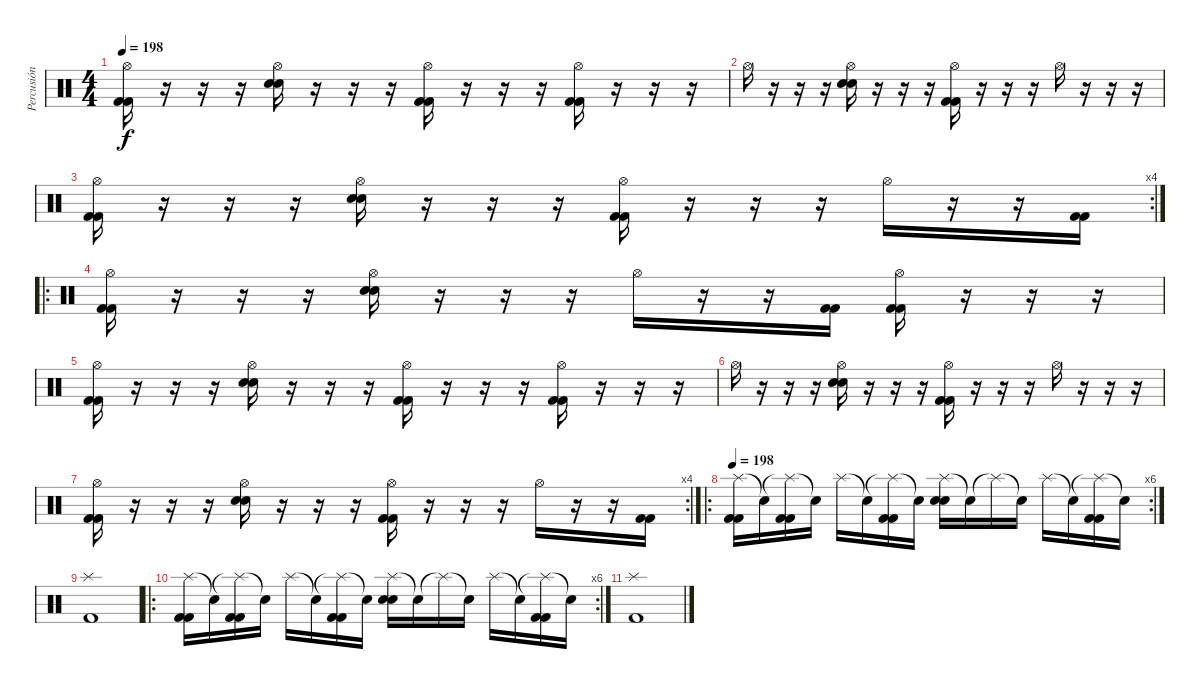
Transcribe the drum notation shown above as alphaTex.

\track ("Percusión" "Percusión") {instrument percussion}
\staff {score}
\articulation defaults
\ts (4 4)
\tempo 198
\clef neutral
\ks c
("Hi-Hat (open)" "Kick (hit) 2" "Kick (hit) 2").16{dy f} r.16 r.16 r.16 ("Hi-Hat (open)" "Electric Snare (hit)" "Electric Snare (hit)").16 r.16 r.16 r.16 ("Hi-Hat (open)" "Kick (hit) 2" "Kick (hit) 2").16 r.16 r.16 r.16 ("Hi-Hat (open)" "Kick (hit) 2" "Kick (hit) 2").16 r.16 r.16 r.16 |
"Hi-Hat (open)".16 r.16 r.16 r.16 ("Hi-Hat (open)" "Electric Snare (hit)" "Electric Snare (hit)").16 r.16 r.16 r.16 ("Hi-Hat (open)" "Kick (hit) 2" "Kick (hit) 2").16 r.16 r.16 r.16 "Hi-Hat (open)".16 r.16 r.16 r.16 |
\rc 4
("Hi-Hat (open)" "Kick (hit) 2" "Kick (hit) 2").16 r.16 r.16 r.16 ("Hi-Hat (open)" "Electric Snare (hit)" "Electric Snare (hit)").16 r.16 r.16 r.16 ("Hi-Hat (open)" "Kick (hit) 2" "Kick (hit) 2").16 r.16 r.16 r.16 "Hi-Hat (open)".16 r.16 r.16 ("Kick (hit) 2" "Kick (hit) 2").16 |
\ro
("Hi-Hat (open)" "Kick (hit) 2" "Kick (hit) 2").16 r.16 r.16 r.16 ("Hi-Hat (open)" "Electric Snare (hit)" "Electric Snare (hit)").16 r.16 r.16 r.16 "Hi-Hat (open)".16 r.16 r.16 ("Kick (hit) 2" "Kick (hit) 2").16 ("Hi-Hat (open)" "Kick (hit) 2" "Kick (hit) 2").16 r.16 r.16 r.16 |
("Hi-Hat (open)" "Kick (hit) 2" "Kick (hit) 2").16 r.16 r.16 r.16 ("Hi-Hat (open)" "Electric Snare (hit)" "Electric Snare (hit)").16 r.16 r.16 r.16 ("Hi-Hat (open)" "Kick (hit) 2" "Kick (hit) 2").16 r.16 r.16 r.16 ("Hi-Hat (open)" "Kick (hit) 2" "Kick (hit) 2").16 r.16 r.16 r.16 |
"Hi-Hat (open)".16 r.16 r.16 r.16 ("Hi-Hat (open)" "Electric Snare (hit)" "Electric Snare (hit)").16 r.16 r.16 r.16 ("Hi-Hat (open)" "Kick (hit) 2" "Kick (hit) 2").16 r.16 r.16 r.16 "Hi-Hat (open)".16 r.16 r.16 r.16 |
\rc 4
("Hi-Hat (open)" "Kick (hit) 2" "Kick (hit) 2").16 r.16 r.16 r.16 ("Hi-Hat (open)" "Electric Snare (hit)" "Electric Snare (hit)").16 r.16 r.16 r.16 ("Hi-Hat (open)" "Kick (hit) 2" "Kick (hit) 2").16 r.16 r.16 r.16 "Hi-Hat (open)".16 r.16 r.16 ("Kick (hit) 2" "Kick (hit) 2").16 |
\ro
\rc 6
\tempo 198
("Splash (hit)" "Kick (hit) 2" "Kick (hit) 2").16 "Snare (hit)"{t}.16 ("Splash (hit)"{t} "Kick (hit) 2" "Kick (hit) 2").16 "Snare (hit)"{t}.16 "Splash (hit)".16 "Snare (hit)"{t}.16 ("Splash (hit)"{t} "Kick (hit) 2" "Kick (hit) 2").16 "Snare (hit)"{t}.16 ("Splash (hit)" "Electric Snare (hit)" "Electric Snare (hit)").16 "Snare (hit)"{t}.16 "Splash (hit)"{t}.16 "Snare (hit)"{t}.16 "Splash (hit)".16 "Snare (hit)"{t}.16 ("Splash (hit)"{t} "Kick (hit) 2" "Kick (hit) 2").16 "Snare (hit)"{t}.16 |
("Splash (hit)" "Kick (hit) 2").1 |
\ro
\rc 6
("Splash (hit)" "Kick (hit) 2" "Kick (hit) 2").16 "Snare (hit)"{t}.16 ("Splash (hit)"{t} "Kick (hit) 2" "Kick (hit) 2").16 "Snare (hit)"{t}.16 "Splash (hit)".16 "Snare (hit)"{t}.16 ("Splash (hit)"{t} "Kick (hit) 2" "Kick (hit) 2").16 "Snare (hit)"{t}.16 ("Splash (hit)" "Electric Snare (hit)" "Electric Snare (hit)").16 "Snare (hit)"{t}.16 "Splash (hit)"{t}.16 "Snare (hit)"{t}.16 "Splash (hit)".16 "Snare (hit)"{t}.16 ("Splash (hit)"{t} "Kick (hit) 2" "Kick (hit) 2").16 "Snare (hit)"{t}.16 |
("Splash (hit)" "Kick (hit) 2").1
